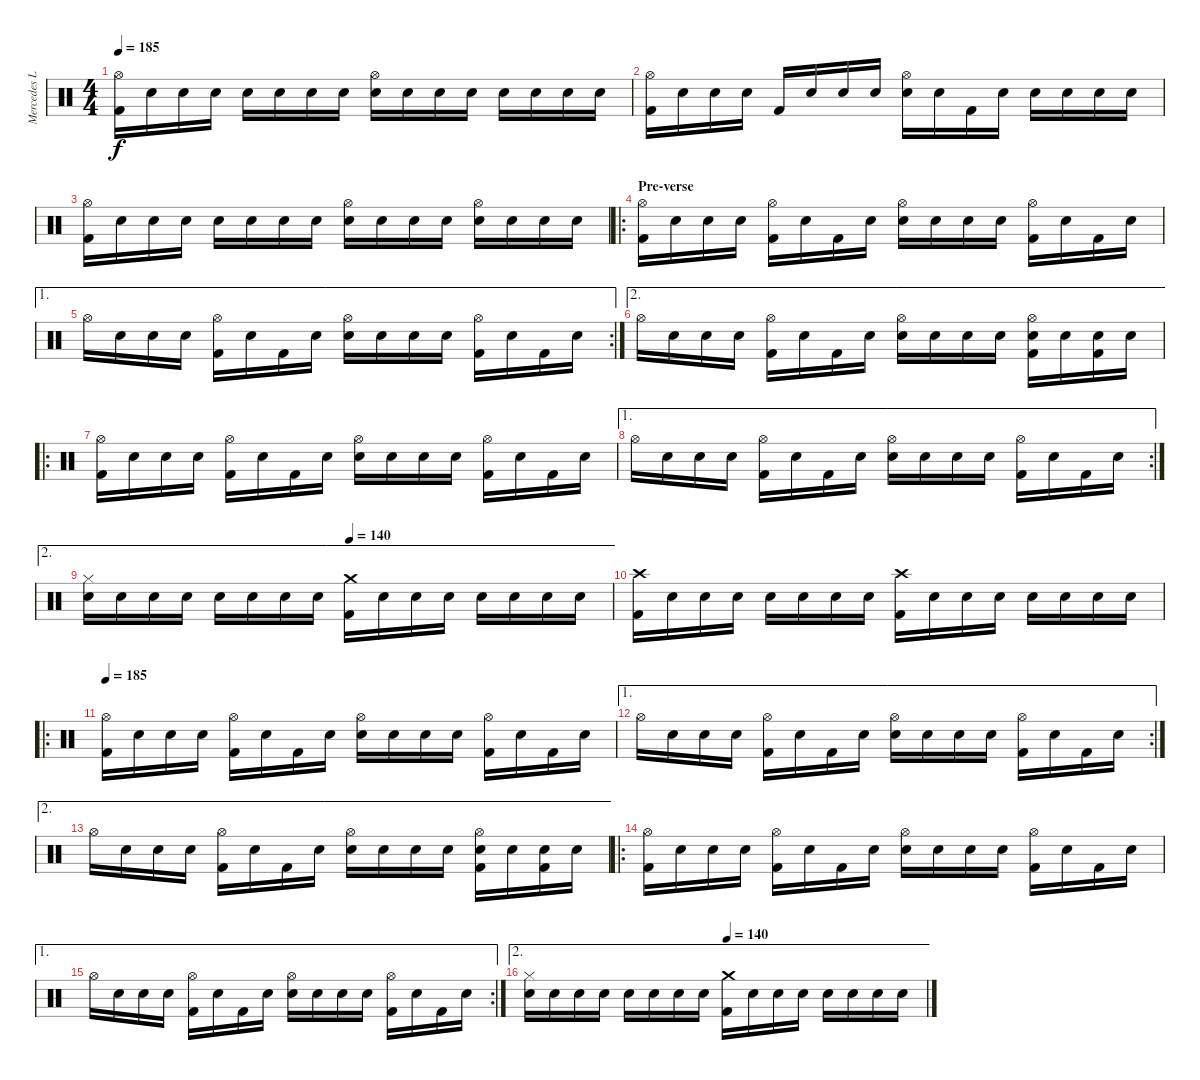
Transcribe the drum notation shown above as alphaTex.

\track ("Mercedes Lander - Drums" "Mercedes L") {instrument percussion}
\staff {score}
\articulation defaults
\ts (4 4)
\tempo 185
\clef neutral
\ks c
("Hi-Hat (open)" "Kick (hit) 2").16{dy f} "Snare (hit)".16 "Snare (hit)".16 "Snare (hit)".16 "Snare (hit)".16 "Snare (hit)".16 "Snare (hit)".16 "Snare (hit)".16 ("Hi-Hat (open)" "Electric Snare (hit)").16 "Snare (hit)".16 "Snare (hit)".16 "Snare (hit)".16 "Snare (hit)".16 "Snare (hit)".16 "Snare (hit)".16 "Snare (hit)".16 |
("Hi-Hat (open)" "Kick (hit) 2").16 "Snare (hit)".16 "Electric Snare (hit)".16 "Snare (hit)".16 "Kick (hit) 2".16 "Snare (hit)".16 "Snare (hit)".16 "Snare (hit)".16 ("Hi-Hat (open)" "Electric Snare (hit)").16 "Snare (hit)".16 "Kick (hit) 2".16 "Snare (hit)".16 "Snare (hit)".16 "Snare (hit)".16 "Snare (hit)".16 "Snare (hit)".16 |
("Hi-Hat (open)" "Kick (hit) 2").16 "Snare (hit)".16 "Snare (hit)".16 "Snare (hit)".16 "Snare (hit)".16 "Snare (hit)".16 "Snare (hit)".16 "Snare (hit)".16 ("Hi-Hat (open)" "Electric Snare (hit)").16 "Snare (hit)".16 "Snare (hit)".16 "Snare (hit)".16 ("Hi-Hat (open)" "Electric Snare (hit)").16 "Snare (hit)".16 "Snare (hit)".16 "Snare (hit)".16 |
\ro
\section ("" "Pre-verse")
("Hi-Hat (open)" "Kick (hit) 2").16{volume 16 balance 8} "Snare (hit)".16 "Snare (hit)".16 "Snare (hit)".16 ("Hi-Hat (open)" "Kick (hit) 2").16 "Snare (hit)".16 "Kick (hit) 2".16 "Snare (hit)".16 ("Hi-Hat (open)" "Snare (hit) 2").16 "Snare (hit)".16 "Snare (hit)".16 "Snare (hit)".16 ("Hi-Hat (open)" "Kick (hit) 2").16 "Snare (hit)".16 "Kick (hit) 2".16 "Snare (hit)".16 |
\ae 1
\rc 2 "Hi-Hat (open)".16 "Snare (hit)".16 "Snare (hit)".16 "Snare (hit)".16
("Hi-Hat (open)" "Kick (hit) 2").16 "Snare (hit)".16 "Kick (hit) 2".16 "Snare (hit)".16 ("Hi-Hat (open)" "Electric Snare (hit)").16 "Snare (hit)".16 "Snare (hit)".16 "Snare (hit)".16 ("Hi-Hat (open)" "Kick (hit) 2").16 "Snare (hit)".16 "Kick (hit) 2".16 "Snare (hit)".16 |
\ae 2 "Hi-Hat (open)".16 "Snare (hit)".16 "Snare (hit)".16 "Snare (hit)".16
("Hi-Hat (open)" "Kick (hit) 2").16 "Snare (hit)".16 "Kick (hit) 2".16 "Snare (hit)".16 ("Hi-Hat (open)" "Electric Snare (hit)").16 "Electric Snare (hit)".16 "Electric Snare (hit)".16 "Electric Snare (hit)".16 ("Hi-Hat (open)" "Electric Snare (hit)" "Kick (hit) 2").16 "Snare (hit)".16 ("Electric Snare (hit)" "Kick (hit) 2").16 "Snare (hit)".16 |
\ro
("Hi-Hat (open)" "Kick (hit) 2").16 "Snare (hit)".16 "Snare (hit)".16 "Snare (hit)".16 ("Hi-Hat (open)" "Kick (hit) 2").16 "Snare (hit)".16 "Kick (hit) 2".16 "Snare (hit)".16 ("Hi-Hat (open)" "Snare (hit) 2").16 "Snare (hit)".16 "Snare (hit)".16 "Snare (hit)".16 ("Hi-Hat (open)" "Kick (hit) 2").16 "Snare (hit)".16 "Kick (hit) 2".16 "Snare (hit)".16 |
\ae 1
\rc 2 "Hi-Hat (open)".16 "Snare (hit)".16 "Snare (hit)".16 "Snare (hit)".16
("Hi-Hat (open)" "Kick (hit) 2").16 "Snare (hit)".16 "Kick (hit) 2".16 "Snare (hit)".16 ("Hi-Hat (open)" "Electric Snare (hit)").16 "Snare (hit)".16 "Snare (hit)".16 "Snare (hit)".16 ("Hi-Hat (open)" "Kick (hit) 2").16 "Snare (hit)".16 "Kick (hit) 2".16 "Snare (hit)".16 |
\ae 2
\tempo (140 0.5)
("Hi-Hat (closed)" "Electric Snare (hit)").16 "Electric Snare (hit)".16 "Electric Snare (hit)".16 "Electric Snare (hit)".16 "Snare (hit) 2".16 "Snare (hit) 2".16 "Snare (hit) 2".16 "Snare (hit) 2".16 ("Crash medium (hit)" "Kick (hit) 2").16 "Snare (hit)".16 "Snare (hit)".16 "Snare (hit)".16 "Snare (hit)".16 "Snare (hit)".16 "Snare (hit)".16 "Snare (hit)".16 |
("Crash high (hit)" "Kick (hit) 2").16 "Snare (hit)".16 "Snare (hit)".16 "Snare (hit)".16 "Snare (hit)".16 "Snare (hit)".16 "Snare (hit)".16 "Snare (hit)".16 ("Crash high (hit)" "Kick (hit) 2").16 "Snare (hit)".16 "Snare (hit)".16 "Snare (hit)".16 "Snare (hit)".16 "Snare (hit)".16 "Snare (hit)".16 "Snare (hit)".16 |
\ro
\tempo 185
("Hi-Hat (open)" "Kick (hit) 2").16 "Snare (hit)".16 "Snare (hit)".16 "Snare (hit)".16 ("Hi-Hat (open)" "Kick (hit) 2").16 "Snare (hit)".16 "Kick (hit) 2".16 "Snare (hit)".16 ("Hi-Hat (open)" "Snare (hit) 2").16 "Snare (hit)".16 "Snare (hit)".16 "Snare (hit)".16 ("Hi-Hat (open)" "Kick (hit) 2").16 "Snare (hit)".16 "Kick (hit) 2".16 "Snare (hit)".16 |
\ae 1
\rc 2 "Hi-Hat (open)".16 "Snare (hit)".16 "Snare (hit)".16 "Snare (hit)".16
("Hi-Hat (open)" "Kick (hit) 2").16 "Snare (hit)".16 "Kick (hit) 2".16 "Snare (hit)".16 ("Hi-Hat (open)" "Electric Snare (hit)").16 "Snare (hit)".16 "Snare (hit)".16 "Snare (hit)".16 ("Hi-Hat (open)" "Kick (hit) 2").16 "Snare (hit)".16 "Kick (hit) 2".16 "Snare (hit)".16 |
\ae 2 "Hi-Hat (open)".16 "Snare (hit)".16 "Snare (hit)".16 "Snare (hit)".16
("Hi-Hat (open)" "Kick (hit) 2").16 "Snare (hit)".16 "Kick (hit) 2".16 "Snare (hit)".16 ("Hi-Hat (open)" "Electric Snare (hit)").16 "Electric Snare (hit)".16 "Electric Snare (hit)".16 "Electric Snare (hit)".16 ("Hi-Hat (open)" "Electric Snare (hit)" "Kick (hit) 2").16 "Snare (hit)".16 ("Electric Snare (hit)" "Kick (hit) 2").16 "Snare (hit)".16 |
\ro
("Hi-Hat (open)" "Kick (hit) 2").16 "Snare (hit)".16 "Snare (hit)".16 "Snare (hit)".16 ("Hi-Hat (open)" "Kick (hit) 2").16 "Snare (hit)".16 "Kick (hit) 2".16 "Snare (hit)".16 ("Hi-Hat (open)" "Snare (hit) 2").16 "Snare (hit)".16 "Snare (hit)".16 "Snare (hit)".16 ("Hi-Hat (open)" "Kick (hit) 2").16 "Snare (hit)".16 "Kick (hit) 2".16 "Snare (hit)".16 |
\ae 1
\rc 2 "Hi-Hat (open)".16 "Snare (hit)".16 "Snare (hit)".16 "Snare (hit)".16
("Hi-Hat (open)" "Kick (hit) 2").16 "Snare (hit)".16 "Kick (hit) 2".16 "Snare (hit)".16 ("Hi-Hat (open)" "Electric Snare (hit)").16 "Snare (hit)".16 "Snare (hit)".16 "Snare (hit)".16 ("Hi-Hat (open)" "Kick (hit) 2").16 "Snare (hit)".16 "Kick (hit) 2".16 "Snare (hit)".16 |
\ae 2
\tempo (140 0.5)
("Hi-Hat (closed)" "Electric Snare (hit)").16 "Electric Snare (hit)".16 "Electric Snare (hit)".16 "Electric Snare (hit)".16 "Snare (hit) 2".16 "Snare (hit) 2".16 "Snare (hit) 2".16 "Snare (hit) 2".16 ("Crash medium (hit)" "Kick (hit) 2").16 "Snare (hit)".16 "Snare (hit)".16 "Snare (hit)".16 "Snare (hit)".16 "Snare (hit)".16 "Snare (hit)".16 "Snare (hit)".16
